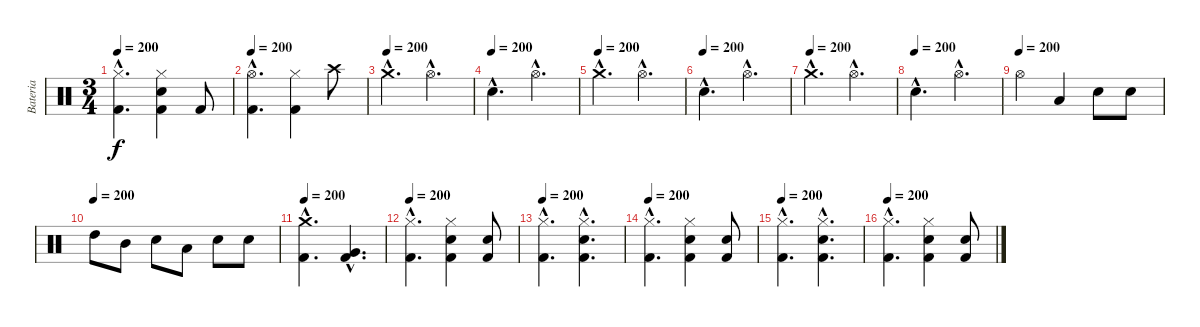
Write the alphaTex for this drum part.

\track ("Bateria" "Bateria") {instrument percussion}
\staff {score}
\articulation defaults
\ts (3 4)
\tempo 200
\clef neutral
\ks c
("Hi-Hat (closed)"{hac} "Kick (hit) 2"{hac}).4{d dy f} ("Hi-Hat (closed)" "Electric Snare (hit)" "Kick (hit) 2").4 "Kick (hit) 2".8 |
\tempo 200
("Hi-Hat (open)"{hac} "Kick (hit) 2"{hac}).4{d} ("Hi-Hat (closed)" "Kick (hit) 2").4 "Crash high (hit)".8 |
\tempo (200)
"Crash medium (hit)"{hac}.4{d} "Hi-Hat (open)"{hac}.4{d} |
\tempo (200)
"Electric Snare (hit)"{hac}.4{d} "Hi-Hat (open)"{hac}.4{d} |
\tempo (200)
"Crash medium (hit)"{hac}.4{d} "Hi-Hat (open)"{hac}.4{d} |
\tempo (200)
"Electric Snare (hit)"{hac}.4{d} "Hi-Hat (open)"{hac}.4{d} |
\tempo (200)
"Crash medium (hit)"{hac}.4{d} "Hi-Hat (open)"{hac}.4{d} |
\tempo (200)
"Electric Snare (hit)"{hac}.4{d} "Hi-Hat (open)"{hac}.4{d} |
\tempo (200)
"Hi-Hat (open)".4 "Low Tom (hit)".4 "Electric Snare (hit)".8 "Electric Snare (hit)".8 |
\tempo (200)
"High Tom (hit)".8 "Mid Tom (hit)".8 "Electric Snare (hit)".8 "Low Tom (hit)".8 "Electric Snare (hit)".8 "Electric Snare (hit)".8 |
\tempo 200
("Crash medium (hit)"{hac} "Kick (hit) 2"{hac}).4{d} ("Very Low Tom (hit)"{hac} "Kick (hit) 2"{hac}).4{d} |
\tempo 200
("Hi-Hat (closed)"{hac} "Kick (hit) 2"{hac}).4{d} ("Electric Snare (hit)" "Hi-Hat (closed)" "Kick (hit) 2").4 ("Electric Snare (hit)" "Kick (hit) 2").8 |
\tempo 200
("Hi-Hat (closed)"{hac} "Kick (hit) 2"{hac}).4{d} ("Electric Snare (hit)"{hac} "Hi-Hat (closed)"{hac} "Kick (hit) 2"{hac}).4{d} |
\tempo 200
("Hi-Hat (closed)"{hac} "Kick (hit) 2"{hac}).4{d} ("Electric Snare (hit)" "Hi-Hat (closed)" "Kick (hit) 2").4 ("Electric Snare (hit)" "Kick (hit) 2").8 |
\tempo 200
("Hi-Hat (closed)"{hac} "Kick (hit) 2"{hac}).4{d} ("Electric Snare (hit)"{hac} "Hi-Hat (closed)"{hac} "Kick (hit) 2"{hac}).4{d} |
\tempo 200
("Hi-Hat (closed)"{hac} "Kick (hit) 2"{hac}).4{d} ("Electric Snare (hit)" "Hi-Hat (closed)" "Kick (hit) 2").4 ("Electric Snare (hit)" "Kick (hit) 2").8
